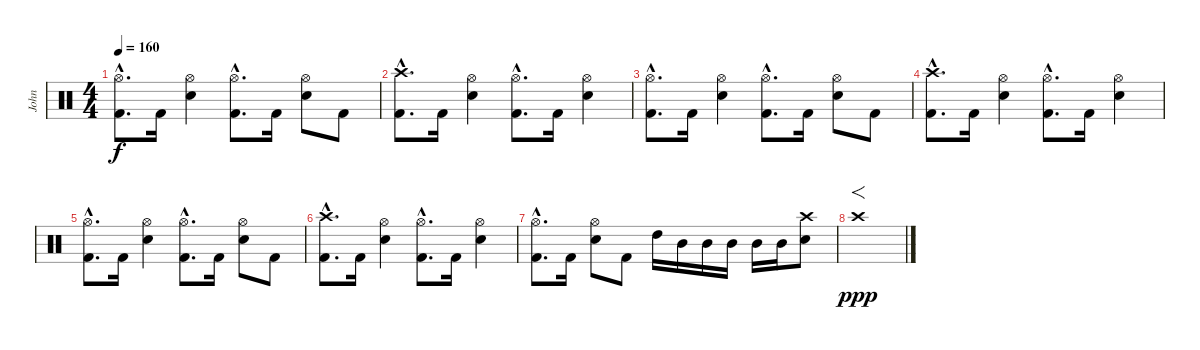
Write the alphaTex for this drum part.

\track ("John" "John") {instrument percussion}
\staff {score}
\articulation defaults
\ts (4 4)
\tempo 160
\clef neutral
\ks c
("Hi-Hat (open)"{hac} "Kick (hit) 2"{hac}).8{d dy f} "Kick (hit) 2".16 ("Hi-Hat (open)" "Electric Snare (hit)").4 ("Hi-Hat (open)"{hac} "Kick (hit) 2"{hac}).8{d} "Kick (hit) 2".16 ("Hi-Hat (open)" "Electric Snare (hit)").8 "Kick (hit) 2".8 |
("Crash high (hit)"{hac} "Kick (hit) 2"{hac}).8{d} "Kick (hit) 2".16 ("Hi-Hat (open)" "Electric Snare (hit)").4 ("Hi-Hat (open)"{hac} "Kick (hit) 2"{hac}).8{d} "Kick (hit) 2".16 ("Hi-Hat (open)" "Electric Snare (hit)").4 |
("Hi-Hat (open)"{hac} "Kick (hit) 2"{hac}).8{d} "Kick (hit) 2".16 ("Hi-Hat (open)" "Electric Snare (hit)").4 ("Hi-Hat (open)"{hac} "Kick (hit) 2"{hac}).8{d} "Kick (hit) 2".16 ("Hi-Hat (open)" "Electric Snare (hit)").8 "Kick (hit) 2".8 |
("Crash high (hit)"{hac} "Kick (hit) 2"{hac}).8{d} "Kick (hit) 2".16 ("Hi-Hat (open)" "Electric Snare (hit)").4 ("Hi-Hat (open)"{hac} "Kick (hit) 2"{hac}).8{d} "Kick (hit) 2".16 ("Hi-Hat (open)" "Electric Snare (hit)").4 |
("Hi-Hat (open)"{hac} "Kick (hit) 2"{hac}).8{d} "Kick (hit) 2".16 ("Hi-Hat (open)" "Electric Snare (hit)").4 ("Hi-Hat (open)"{hac} "Kick (hit) 2"{hac}).8{d} "Kick (hit) 2".16 ("Hi-Hat (open)" "Electric Snare (hit)").8 "Kick (hit) 2".8 |
("Crash high (hit)"{hac} "Kick (hit) 2"{hac}).8{d} "Kick (hit) 2".16 ("Hi-Hat (open)" "Electric Snare (hit)").4 ("Hi-Hat (open)"{hac} "Kick (hit) 2"{hac}).8{d} "Kick (hit) 2".16 ("Hi-Hat (open)" "Electric Snare (hit)").4 |
("Hi-Hat (open)"{hac} "Kick (hit) 2"{hac}).8{d} "Kick (hit) 2".16 ("Hi-Hat (open)" "Electric Snare (hit)").8 "Kick (hit) 2".8 "High Tom (hit)".16 "Mid Tom (hit)".16 "Mid Tom (hit)".16 "Mid Tom (hit)".16 "Mid Tom (hit)".16 "Mid Tom (hit)".16 ("Crash high (hit)" "Electric Snare (hit)").8 |
"Crash high (hit)".1{f dy ppp}
